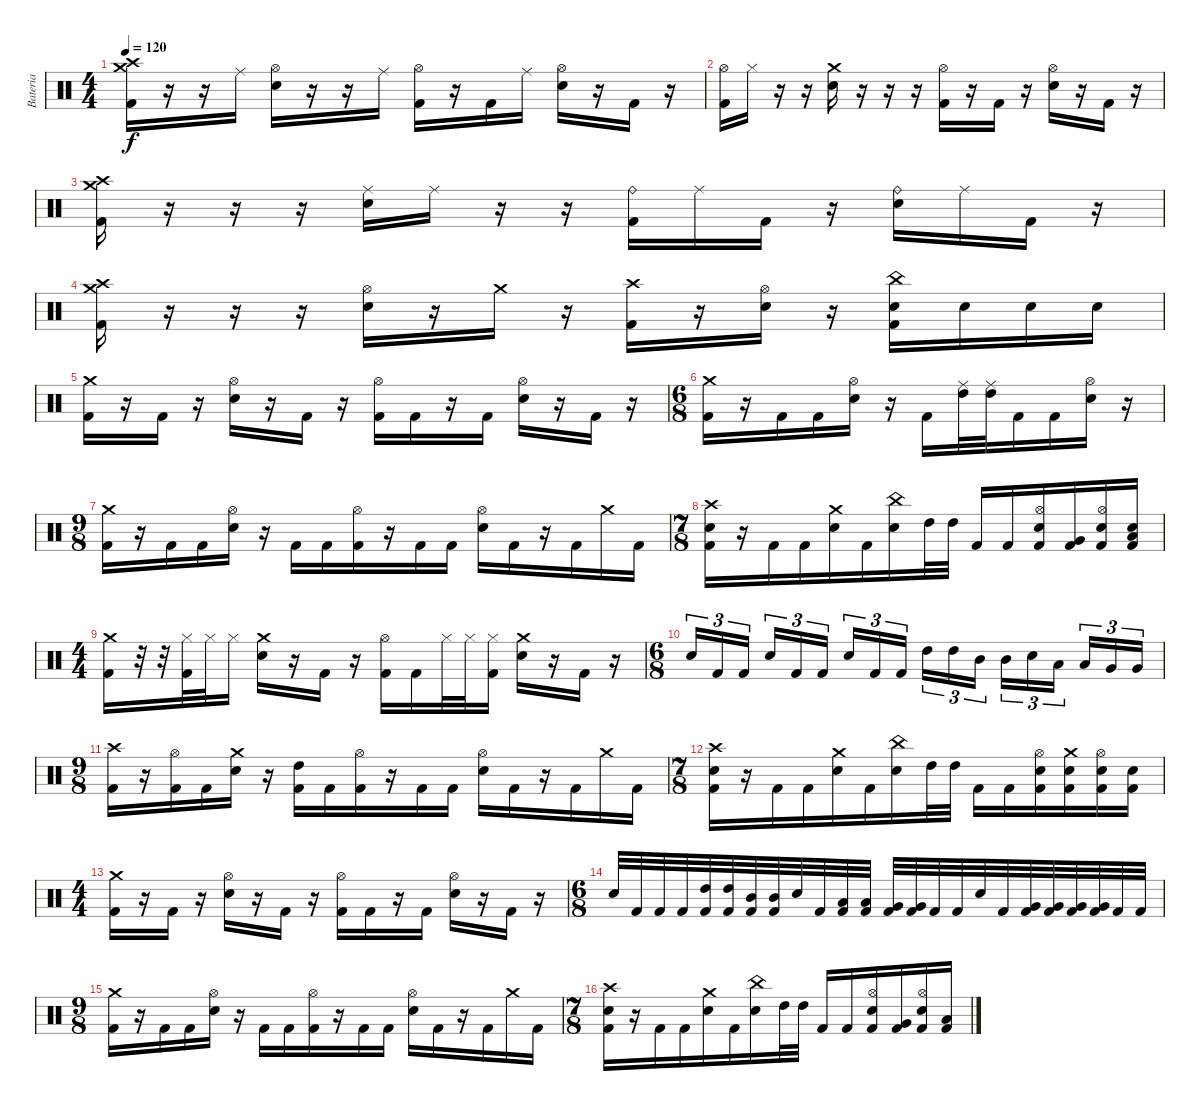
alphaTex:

\track ("Bateria" "Bateria") {instrument percussion}
\staff {score}
\articulation defaults
\ts (4 4)
\tempo 120
\clef neutral
\ks c
("Crash medium (hit)" "Crash high (hit)" "Kick (hit) 2").16{dy f} r.16 r.16 "Ride (middle)".16 ("Hi-Hat (open)" "Electric Snare (hit)").16 r.16 r.16 "Ride (middle)".16 ("Hi-Hat (open)" "Kick (hit) 2").16 r.16 "Kick (hit) 2".16 "Ride (middle)".16 ("Hi-Hat (open)" "Electric Snare (hit)").16 r.16 "Kick (hit) 2".16 r.16 |
("Hi-Hat (open)" "Kick (hit) 2").16 "Hi-Hat (closed)".16 r.16 r.16 ("Crash medium (hit)" "Electric Snare (hit)").16 r.16 r.16 r.16 ("Hi-Hat (open)" "Kick (hit) 2").16 r.16 "Kick (hit) 2".16 r.16 ("Hi-Hat (open)" "Electric Snare (hit)").16 r.16 "Kick (hit) 2".16 r.16 |
("Crash medium (hit)" "Crash high (hit)" "Kick (hit) 2").16 r.16 r.16 r.16 ("Ride (middle)" "Electric Snare (hit)").16 "Ride (middle)".16 r.16 r.16 ("Ride (bell)" "Kick (hit) 2").16 "Ride (middle)".16 "Kick (hit) 2".16 r.16 ("Ride (bell)" "Electric Snare (hit)").16 "Ride (middle)".16 "Kick (hit) 2".16 r.16 |
("Crash medium (hit)" "Crash high (hit)" "Kick (hit) 2").16 r.16 r.16 r.16 ("Hi-Hat (open)" "Electric Snare (hit)").16 r.16 "Crash medium (hit)".16 r.16 ("Crash high (hit)" "Kick (hit) 2").16 r.16 ("Hi-Hat (open)" "Electric Snare (hit)").16 r.16 ("China (hit)" "Electric Snare (hit)" "Kick (hit) 2").16 "Electric Snare (hit)".16 "Electric Snare (hit)".16 "Electric Snare (hit)".16 |
("Crash medium (hit)" "Kick (hit) 2").16 r.16 "Kick (hit) 2".16 r.16 ("Hi-Hat (open)" "Electric Snare (hit)").16 r.16 "Kick (hit) 2".16 r.16 ("Hi-Hat (open)" "Kick (hit) 2").16 "Kick (hit) 2".16 r.16 "Kick (hit) 2".16 ("Hi-Hat (open)" "Electric Snare (hit)").16 r.16 "Kick (hit) 2".16 r.16 |
\ts (6 8)
("Crash medium (hit)" "Kick (hit) 2").16 r.16 "Kick (hit) 2".16 "Kick (hit) 2".16 ("Hi-Hat (open)" "Electric Snare (hit)").16 r.16 "Kick (hit) 2".16 ("Ride (middle)" "High Tom (hit)").32 ("Ride (middle)" "High Tom (hit)").32 "Kick (hit) 2".16 "Kick (hit) 2".16 ("Hi-Hat (open)" "Electric Snare (hit)").16 r.16 |
\ts (9 8)
("Crash medium (hit)" "Kick (hit) 2").16 r.16 "Kick (hit) 2".16 "Kick (hit) 2".16 ("Hi-Hat (open)" "Electric Snare (hit)").16 r.16 "Kick (hit) 2".16 "Kick (hit) 2".16 ("Hi-Hat (open)" "Kick (hit) 2").16 r.16 "Kick (hit) 2".16 "Kick (hit) 2".16 ("Hi-Hat (open)" "Electric Snare (hit)").16 "Kick (hit) 2".16 r.16 "Kick (hit) 2".16 "Crash medium (hit)".16 "Kick (hit) 2".16 |
\ts (7 8)
("Crash high (hit)" "Electric Snare (hit)" "Kick (hit) 2").16 r.16 "Kick (hit) 2".16 "Kick (hit) 2".16 ("Crash medium (hit)" "Electric Snare (hit)").16 "Kick (hit) 2".16 ("China (hit)" "Electric Snare (hit)").16 "High Tom (hit)".32 "High Tom (hit)".32 "Kick (hit) 2".16 "Kick (hit) 2".16 ("Hi-Hat (open)" "Electric Snare (hit)" "Kick (hit) 2").16 ("Very Low Tom (hit)" "Kick (hit) 2").16 ("Hi-Hat (open)" "Electric Snare (hit)" "Kick (hit) 2").16 ("Low Tom (hit)" "Electric Snare (hit)" "Kick (hit) 2").16 |
\ts (4 4)
("Crash medium (hit)" "Kick (hit) 2").16 r.32 r.32 ("Hi-Hat (closed)" "Kick (hit) 2").32 "Hi-Hat (closed)".32 "Hi-Hat (closed)".16 ("Crash medium (hit)" "Electric Snare (hit)").16 r.16 "Kick (hit) 2".16 r.16 ("Hi-Hat (open)" "Kick (hit) 2").16 "Kick (hit) 2".16 "Hi-Hat (closed)".32 "Hi-Hat (closed)".32 ("Hi-Hat (closed)" "Kick (hit) 2").16 ("Crash medium (hit)" "Electric Snare (hit)").16 r.16 "Kick (hit) 2".16 r.16 |
\ts (6 8)
"Electric Snare (hit)".16{tu (3 2)} "Kick (hit) 2".16{tu (3 2)} "Kick (hit) 2".16{tu (3 2)} "Electric Snare (hit)".16{tu (3 2)} "Kick (hit) 2".16{tu (3 2)} "Kick (hit) 2".16{tu (3 2)} "Electric Snare (hit)".16{tu (3 2)} "Kick (hit) 2".16{tu (3 2)} "Kick (hit) 2".16{tu (3 2)} "High Tom (hit)".16{tu (3 2)} "High Tom (hit)".16{tu (3 2)} "Mid Tom (hit)".16{tu (3 2)} "Mid Tom (hit)".16{tu (3 2)} "Electric Snare (hit)".16{tu (3 2)} "Low Tom (hit)".16{tu (3 2)} "Low Tom (hit)".16{tu (3 2)} "Very Low Tom (hit)".16{tu (3 2)} "Very Low Tom (hit)".16{tu (3 2)} |
\ts (9 8)
("Crash high (hit)" "Kick (hit) 2").16 r.16 ("Hi-Hat (open)" "Kick (hit) 2").16 "Kick (hit) 2".16 ("Crash medium (hit)" "Electric Snare (hit)").16 r.16 ("High Tom (hit)" "Kick (hit) 2").16 "Kick (hit) 2".16 ("Hi-Hat (open)" "Kick (hit) 2").16 r.16 "Kick (hit) 2".16 "Kick (hit) 2".16 ("Hi-Hat (open)" "Electric Snare (hit)").16 "Kick (hit) 2".16 r.16 "Kick (hit) 2".16 "Crash medium (hit)".16 "Kick (hit) 2".16 |
\ts (7 8)
("Crash high (hit)" "Electric Snare (hit)" "Kick (hit) 2").16 r.16 "Kick (hit) 2".16 "Kick (hit) 2".16 ("Crash medium (hit)" "Electric Snare (hit)").16 "Kick (hit) 2".16 ("China (hit)" "Electric Snare (hit)").16 "High Tom (hit)".32 "High Tom (hit)".32 "Kick (hit) 2".16 "Kick (hit) 2".16 ("Hi-Hat (open)" "Electric Snare (hit)" "Kick (hit) 2").16 ("Crash medium (hit)" "Electric Snare (hit)" "Kick (hit) 2").16 ("Hi-Hat (open)" "Electric Snare (hit)" "Kick (hit) 2").16 ("Electric Snare (hit)" "Kick (hit) 2").16 |
\ts (4 4)
("Crash medium (hit)" "Kick (hit) 2").16 r.16 "Kick (hit) 2".16 r.16 ("Hi-Hat (open)" "Electric Snare (hit)").16 r.16 "Kick (hit) 2".16 r.16 ("Hi-Hat (open)" "Kick (hit) 2").16 "Kick (hit) 2".16 r.16 "Kick (hit) 2".16 ("Hi-Hat (open)" "Electric Snare (hit)").16 r.16 "Kick (hit) 2".16 r.16 |
\ts (6 8)
"Electric Snare (hit)".32 "Kick (hit) 2".32 "Kick (hit) 2".32 "Kick (hit) 2".32 ("High Tom (hit)" "Kick (hit) 2").32 ("High Tom (hit)" "Kick (hit) 2").32 ("Mid Tom (hit)" "Kick (hit) 2").32 ("Mid Tom (hit)" "Kick (hit) 2").32 "Electric Snare (hit)".32 "Kick (hit) 2".32 ("Low Tom (hit)" "Kick (hit) 2").32 ("Low Tom (hit)" "Kick (hit) 2").32 ("Very Low Tom (hit)" "Kick (hit) 2").32 ("Very Low Tom (hit)" "Kick (hit) 2").32 "Kick (hit) 2".32 "Kick (hit) 2".32 "Electric Snare (hit)".32 "Kick (hit) 2".32 ("Very Low Tom (hit)" "Kick (hit) 2").32 ("Very Low Tom (hit)" "Kick (hit) 2").32 ("Very Low Tom (hit)" "Kick (hit) 2").32 ("Very Low Tom (hit)" "Kick (hit) 2").32 "Kick (hit) 2".32 "Kick (hit) 2".32 |
\ts (9 8)
("Crash medium (hit)" "Kick (hit) 2").16 r.16 "Kick (hit) 2".16 "Kick (hit) 2".16 ("Hi-Hat (open)" "Electric Snare (hit)").16 r.16 "Kick (hit) 2".16 "Kick (hit) 2".16 ("Hi-Hat (open)" "Kick (hit) 2").16 r.16 "Kick (hit) 2".16 "Kick (hit) 2".16 ("Hi-Hat (open)" "Electric Snare (hit)").16 "Kick (hit) 2".16 r.16 "Kick (hit) 2".16 "Crash medium (hit)".16 "Kick (hit) 2".16 |
\ts (7 8)
("Crash high (hit)" "Electric Snare (hit)" "Kick (hit) 2").16 r.16 "Kick (hit) 2".16 "Kick (hit) 2".16 ("Crash medium (hit)" "Electric Snare (hit)").16 "Kick (hit) 2".16 ("China (hit)" "Electric Snare (hit)").16 "High Tom (hit)".32 "High Tom (hit)".32 "Kick (hit) 2".16 "Kick (hit) 2".16 ("Hi-Hat (open)" "Electric Snare (hit)" "Kick (hit) 2").16 ("Very Low Tom (hit)" "Kick (hit) 2").16 ("Hi-Hat (open)" "Electric Snare (hit)" "Kick (hit) 2").16 ("Low Tom (hit)" "Kick (hit) 2").16
